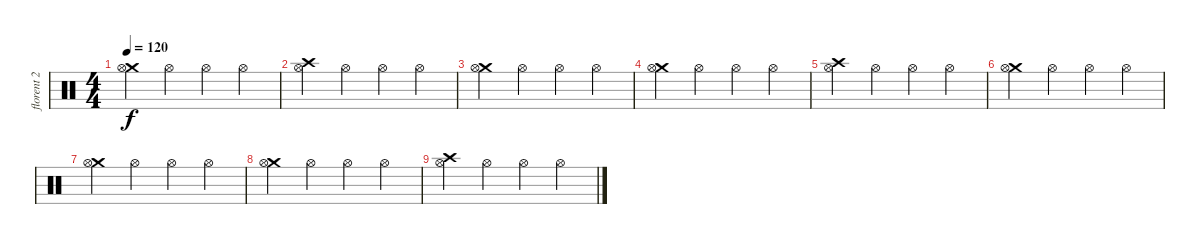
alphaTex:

\track ("florent 2" "florent 2") {instrument percussion}
\staff {score}
\articulation defaults
\ts (4 4)
\tempo 120
\clef neutral
\ks c
("Crash medium (hit)" "Hi-Hat (open)").4{dy f} "Hi-Hat (open)".4 "Hi-Hat (open)".4 "Hi-Hat (open)".4 |
("Crash high (hit)" "Hi-Hat (open)").4 "Hi-Hat (open)".4 "Hi-Hat (open)".4 "Hi-Hat (open)".4 |
("Crash medium (hit)" "Hi-Hat (open)").4 "Hi-Hat (open)".4 "Hi-Hat (open)".4 "Hi-Hat (open)".4 |
("Crash medium (hit)" "Hi-Hat (open)").4 "Hi-Hat (open)".4 "Hi-Hat (open)".4 "Hi-Hat (open)".4 |
("Crash high (hit)" "Hi-Hat (open)").4 "Hi-Hat (open)".4 "Hi-Hat (open)".4 "Hi-Hat (open)".4 |
("Crash medium (hit)" "Hi-Hat (open)").4 "Hi-Hat (open)".4 "Hi-Hat (open)".4 "Hi-Hat (open)".4 |
("Crash medium (hit)" "Hi-Hat (open)").4 "Hi-Hat (open)".4 "Hi-Hat (open)".4 "Hi-Hat (open)".4 |
("Crash medium (hit)" "Hi-Hat (open)").4 "Hi-Hat (open)".4 "Hi-Hat (open)".4 "Hi-Hat (open)".4 |
("Crash high (hit)" "Hi-Hat (open)").4 "Hi-Hat (open)".4 "Hi-Hat (open)".4 "Hi-Hat (open)".4
